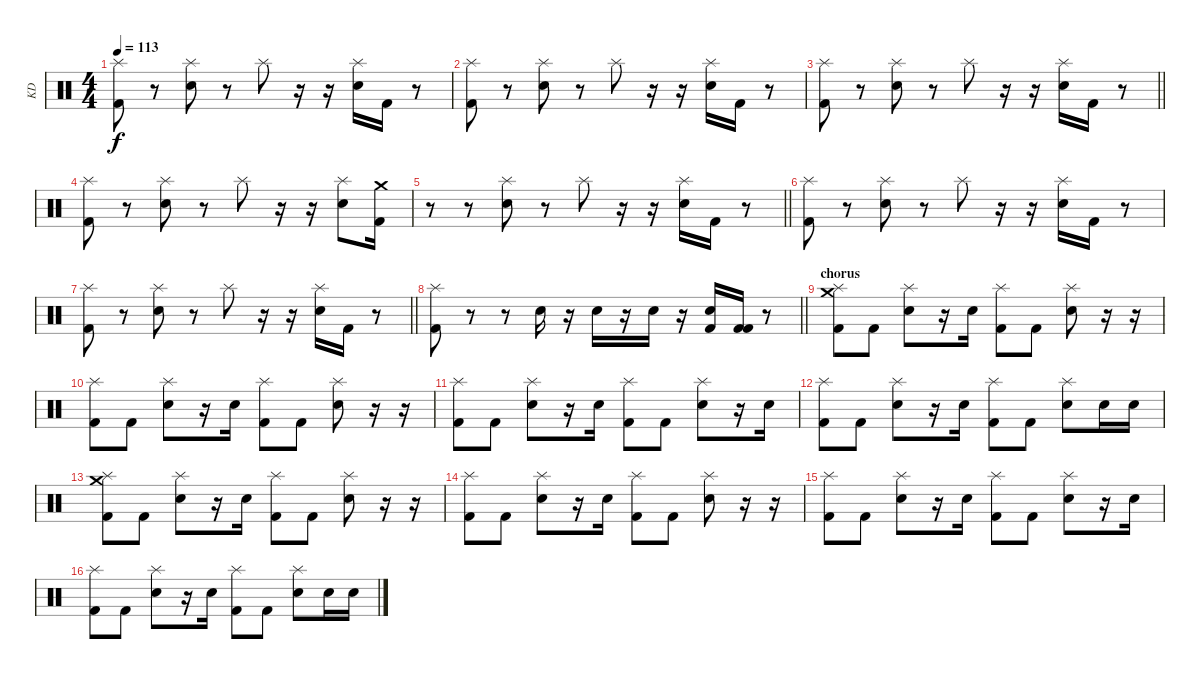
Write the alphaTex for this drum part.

\track ("KD" "KD") {instrument percussion}
\staff {score}
\articulation defaults
\ts (4 4)
\tempo 113
\clef neutral
\ks c
("Kick (hit) 2" "Splash (hit)").8{dy f} r.8 ("Electric Snare (hit)" "Splash (hit)").8 r.8 "Splash (hit)".8 r.16 r.16 ("Electric Snare (hit)" "Splash (hit)").16 "Kick (hit) 2".16 r.8 |
("Kick (hit) 2" "Splash (hit)").8 r.8 ("Electric Snare (hit)" "Splash (hit)").8 r.8 "Splash (hit)".8 r.16 r.16 ("Electric Snare (hit)" "Splash (hit)").16 "Kick (hit) 2".16 r.8 |
\barLineRight lightlight
("Kick (hit) 2" "Splash (hit)").8 r.8 ("Electric Snare (hit)" "Splash (hit)").8 r.8 "Splash (hit)".8 r.16 r.16 ("Electric Snare (hit)" "Splash (hit)").16 "Kick (hit) 2".16 r.8 |
("Kick (hit) 2" "Splash (hit)").8 r.8 ("Electric Snare (hit)" "Splash (hit)").8 r.8 "Splash (hit)".8 r.16 r.16 ("Electric Snare (hit)" "Splash (hit)").8 ("Crash medium (hit)" "Kick (hit) 2").16 |
\barLineRight lightlight
r.8 r.8 ("Electric Snare (hit)" "Splash (hit)").8 r.8 "Splash (hit)".8 r.16 r.16 ("Electric Snare (hit)" "Splash (hit)").16 "Kick (hit) 2".16 r.8 |
("Kick (hit) 2" "Splash (hit)").8 r.8 ("Electric Snare (hit)" "Splash (hit)").8 r.8 "Splash (hit)".8 r.16 r.16 ("Electric Snare (hit)" "Splash (hit)").16 "Kick (hit) 2".16 r.8 |
\barLineRight lightlight
("Kick (hit) 2" "Splash (hit)").8 r.8 ("Electric Snare (hit)" "Splash (hit)").8 r.8 "Splash (hit)".8 r.16 r.16 ("Electric Snare (hit)" "Splash (hit)").16 "Kick (hit) 2".16 r.8 |
\barLineRight lightlight
("Kick (hit) 2" "Splash (hit)").8 r.8 r.8 "Electric Snare (hit)".16 r.16 "Electric Snare (hit)".16 r.16 "Electric Snare (hit)".16 r.16 ("Electric Snare (hit)" "Kick (hit) 2").16 ("Kick (hit) 2" "Kick (hit) 2").16 r.8 |
\section ("" "chorus")
("Kick (hit) 2" "Crash medium (hit)" "Splash (hit)").8 "Kick (hit) 2".8 ("Electric Snare (hit)" "Splash (hit)").8 r.16 "Electric Snare (hit)".16 ("Kick (hit) 2" "Splash (hit)").8 "Kick (hit) 2".8 ("Electric Snare (hit)" "Splash (hit)").8 r.16 r.16 |
("Kick (hit) 2" "Splash (hit)").8 "Kick (hit) 2".8 ("Electric Snare (hit)" "Splash (hit)").8 r.16 "Electric Snare (hit)".16 ("Kick (hit) 2" "Splash (hit)").8 "Kick (hit) 2".8 ("Electric Snare (hit)" "Splash (hit)").8 r.16 r.16 |
("Kick (hit) 2" "Splash (hit)").8 "Kick (hit) 2".8 ("Electric Snare (hit)" "Splash (hit)").8 r.16 "Electric Snare (hit)".16 ("Kick (hit) 2" "Splash (hit)").8 "Kick (hit) 2".8 ("Electric Snare (hit)" "Splash (hit)").8 r.16 "Electric Snare (hit)".16 |
("Kick (hit) 2" "Splash (hit)").8 "Kick (hit) 2".8 ("Electric Snare (hit)" "Splash (hit)").8 r.16 "Electric Snare (hit)".16 ("Kick (hit) 2" "Splash (hit)").8 "Kick (hit) 2".8 ("Electric Snare (hit)" "Splash (hit)").8 "Electric Snare (hit)".16 "Electric Snare (hit)".16 |
("Kick (hit) 2" "Crash medium (hit)" "Splash (hit)").8 "Kick (hit) 2".8 ("Electric Snare (hit)" "Splash (hit)").8 r.16 "Electric Snare (hit)".16 ("Kick (hit) 2" "Splash (hit)").8 "Kick (hit) 2".8 ("Electric Snare (hit)" "Splash (hit)").8 r.16 r.16 |
("Kick (hit) 2" "Splash (hit)").8 "Kick (hit) 2".8 ("Electric Snare (hit)" "Splash (hit)").8 r.16 "Electric Snare (hit)".16 ("Kick (hit) 2" "Splash (hit)").8 "Kick (hit) 2".8 ("Electric Snare (hit)" "Splash (hit)").8 r.16 r.16 |
("Kick (hit) 2" "Splash (hit)").8 "Kick (hit) 2".8 ("Electric Snare (hit)" "Splash (hit)").8 r.16 "Electric Snare (hit)".16 ("Kick (hit) 2" "Splash (hit)").8 "Kick (hit) 2".8 ("Electric Snare (hit)" "Splash (hit)").8 r.16 "Electric Snare (hit)".16 |
("Kick (hit) 2" "Splash (hit)").8 "Kick (hit) 2".8 ("Electric Snare (hit)" "Splash (hit)").8 r.16 "Electric Snare (hit)".16 ("Kick (hit) 2" "Splash (hit)").8 "Kick (hit) 2".8 ("Electric Snare (hit)" "Splash (hit)").8 "Electric Snare (hit)".16 "Electric Snare (hit)".16
